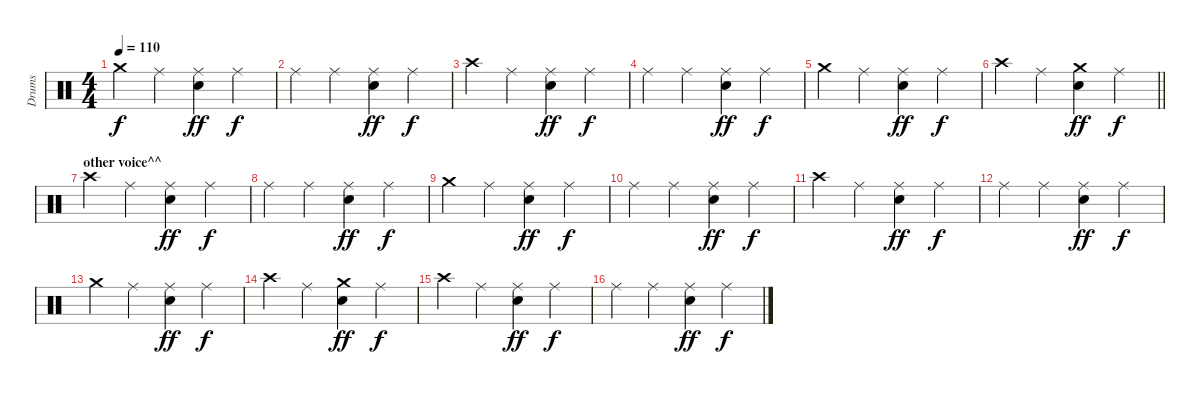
\track ("Drums" "Drums") {instrument percussion}
\staff {score}
\articulation defaults
\ts (4 4)
\tempo 110
\clef neutral
\ks c "Crash medium (hit)".4{dy f} "Ride (middle)".4
("Ride (middle)" "Snare (hit) 2").4{dy ff} "Ride (middle)".4{dy f} |
"Ride (middle)".4 "Ride (middle)".4 ("Ride (middle)" "Snare (hit) 2").4{dy ff} "Ride (middle)".4{dy f} |
"Crash high (hit)".4 "Ride (middle)".4 ("Ride (middle)" "Snare (hit) 2").4{dy ff} "Ride (middle)".4{dy f} |
"Ride (middle)".4 "Ride (middle)".4 ("Ride (middle)" "Snare (hit) 2").4{dy ff} "Ride (middle)".4{dy f} |
"Crash medium (hit)".4 "Ride (middle)".4 ("Ride (middle)" "Snare (hit) 2").4{dy ff} "Ride (middle)".4{dy f} |
\barLineRight lightlight "Crash high (hit)".4 "Ride (middle)".4
("Crash medium (hit)" "Snare (hit) 2").4{dy ff} "Ride (middle)".4{dy f} |
\section ("" "other voice^^")
"Crash high (hit)".4 "Ride (middle)".4 ("Ride (middle)" "Snare (hit) 2").4{dy ff} "Ride (middle)".4{dy f} |
"Ride (middle)".4 "Ride (middle)".4 ("Ride (middle)" "Snare (hit) 2").4{dy ff} "Ride (middle)".4{dy f} |
"Crash medium (hit)".4 "Ride (middle)".4 ("Ride (middle)" "Snare (hit) 2").4{dy ff} "Ride (middle)".4{dy f} |
"Ride (middle)".4 "Ride (middle)".4 ("Ride (middle)" "Snare (hit) 2").4{dy ff} "Ride (middle)".4{dy f} |
"Crash high (hit)".4 "Ride (middle)".4 ("Ride (middle)" "Snare (hit) 2").4{dy ff} "Ride (middle)".4{dy f} |
"Ride (middle)".4 "Ride (middle)".4 ("Ride (middle)" "Snare (hit) 2").4{dy ff} "Ride (middle)".4{dy f} |
"Crash medium (hit)".4 "Ride (middle)".4 ("Ride (middle)" "Snare (hit) 2").4{dy ff} "Ride (middle)".4{dy f} |
"Crash high (hit)".4 "Ride (middle)".4 ("Crash medium (hit)" "Snare (hit) 2").4{dy ff} "Ride (middle)".4{dy f} |
"Crash high (hit)".4 "Ride (middle)".4 ("Ride (middle)" "Snare (hit) 2").4{dy ff} "Ride (middle)".4{dy f} |
"Ride (middle)".4 "Ride (middle)".4 ("Ride (middle)" "Snare (hit) 2").4{dy ff} "Ride (middle)".4{dy f}
